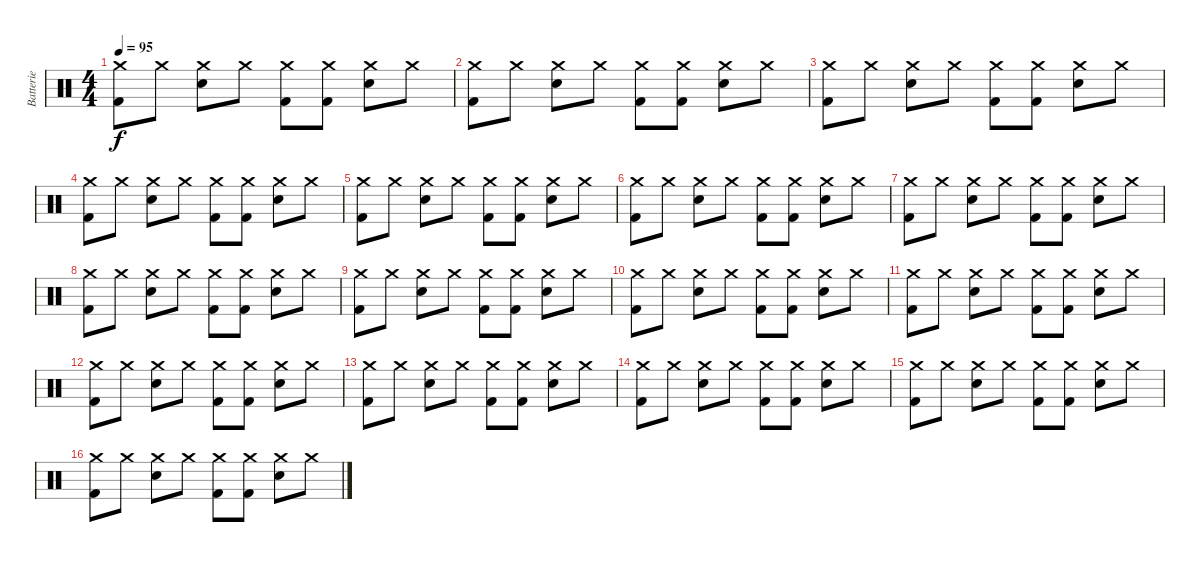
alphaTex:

\track ("Batterie" "Batterie") {instrument percussion}
\staff {score}
\articulation defaults
\ts (4 4)
\tempo 95
\clef neutral
\ks c
("Crash medium (hit)" "Kick (hit) 2").8{dy f} "Crash medium (hit)".8 ("Crash medium (hit)" "Electric Snare (hit)").8 "Crash medium (hit)".8 ("Crash medium (hit)" "Kick (hit) 2").8 ("Crash medium (hit)" "Kick (hit) 2").8 ("Crash medium (hit)" "Electric Snare (hit)").8 "Crash medium (hit)".8 |
("Crash medium (hit)" "Kick (hit) 2").8 "Crash medium (hit)".8 ("Crash medium (hit)" "Electric Snare (hit)").8 "Crash medium (hit)".8 ("Crash medium (hit)" "Kick (hit) 2").8 ("Crash medium (hit)" "Kick (hit) 2").8 ("Crash medium (hit)" "Electric Snare (hit)").8 "Crash medium (hit)".8 |
("Crash medium (hit)" "Kick (hit) 2").8 "Crash medium (hit)".8 ("Crash medium (hit)" "Electric Snare (hit)").8 "Crash medium (hit)".8 ("Crash medium (hit)" "Kick (hit) 2").8 ("Crash medium (hit)" "Kick (hit) 2").8 ("Crash medium (hit)" "Electric Snare (hit)").8 "Crash medium (hit)".8 |
("Crash medium (hit)" "Kick (hit) 2").8 "Crash medium (hit)".8 ("Crash medium (hit)" "Electric Snare (hit)").8 "Crash medium (hit)".8 ("Crash medium (hit)" "Kick (hit) 2").8 ("Crash medium (hit)" "Kick (hit) 2").8 ("Crash medium (hit)" "Electric Snare (hit)").8 "Crash medium (hit)".8 |
("Crash medium (hit)" "Kick (hit) 2").8 "Crash medium (hit)".8 ("Crash medium (hit)" "Electric Snare (hit)").8 "Crash medium (hit)".8 ("Crash medium (hit)" "Kick (hit) 2").8 ("Crash medium (hit)" "Kick (hit) 2").8 ("Crash medium (hit)" "Electric Snare (hit)").8 "Crash medium (hit)".8 |
("Crash medium (hit)" "Kick (hit) 2").8 "Crash medium (hit)".8 ("Crash medium (hit)" "Electric Snare (hit)").8 "Crash medium (hit)".8 ("Crash medium (hit)" "Kick (hit) 2").8 ("Crash medium (hit)" "Kick (hit) 2").8 ("Crash medium (hit)" "Electric Snare (hit)").8 "Crash medium (hit)".8 |
("Crash medium (hit)" "Kick (hit) 2").8 "Crash medium (hit)".8 ("Crash medium (hit)" "Electric Snare (hit)").8 "Crash medium (hit)".8 ("Crash medium (hit)" "Kick (hit) 2").8 ("Crash medium (hit)" "Kick (hit) 2").8 ("Crash medium (hit)" "Electric Snare (hit)").8 "Crash medium (hit)".8 |
("Crash medium (hit)" "Kick (hit) 2").8 "Crash medium (hit)".8 ("Crash medium (hit)" "Electric Snare (hit)").8 "Crash medium (hit)".8 ("Crash medium (hit)" "Kick (hit) 2").8 ("Crash medium (hit)" "Kick (hit) 2").8 ("Crash medium (hit)" "Electric Snare (hit)").8 "Crash medium (hit)".8 |
("Crash medium (hit)" "Kick (hit) 2").8 "Crash medium (hit)".8 ("Crash medium (hit)" "Electric Snare (hit)").8 "Crash medium (hit)".8 ("Crash medium (hit)" "Kick (hit) 2").8 ("Crash medium (hit)" "Kick (hit) 2").8 ("Crash medium (hit)" "Electric Snare (hit)").8 "Crash medium (hit)".8 |
("Crash medium (hit)" "Kick (hit) 2").8 "Crash medium (hit)".8 ("Crash medium (hit)" "Electric Snare (hit)").8 "Crash medium (hit)".8 ("Crash medium (hit)" "Kick (hit) 2").8 ("Crash medium (hit)" "Kick (hit) 2").8 ("Crash medium (hit)" "Electric Snare (hit)").8 "Crash medium (hit)".8 |
("Crash medium (hit)" "Kick (hit) 2").8 "Crash medium (hit)".8 ("Crash medium (hit)" "Electric Snare (hit)").8 "Crash medium (hit)".8 ("Crash medium (hit)" "Kick (hit) 2").8 ("Crash medium (hit)" "Kick (hit) 2").8 ("Crash medium (hit)" "Electric Snare (hit)").8 "Crash medium (hit)".8 |
("Crash medium (hit)" "Kick (hit) 2").8 "Crash medium (hit)".8 ("Crash medium (hit)" "Electric Snare (hit)").8 "Crash medium (hit)".8 ("Crash medium (hit)" "Kick (hit) 2").8 ("Crash medium (hit)" "Kick (hit) 2").8 ("Crash medium (hit)" "Electric Snare (hit)").8 "Crash medium (hit)".8 |
("Crash medium (hit)" "Kick (hit) 2").8 "Crash medium (hit)".8 ("Crash medium (hit)" "Electric Snare (hit)").8 "Crash medium (hit)".8 ("Crash medium (hit)" "Kick (hit) 2").8 ("Crash medium (hit)" "Kick (hit) 2").8 ("Crash medium (hit)" "Electric Snare (hit)").8 "Crash medium (hit)".8 |
("Crash medium (hit)" "Kick (hit) 2").8 "Crash medium (hit)".8 ("Crash medium (hit)" "Electric Snare (hit)").8 "Crash medium (hit)".8 ("Crash medium (hit)" "Kick (hit) 2").8 ("Crash medium (hit)" "Kick (hit) 2").8 ("Crash medium (hit)" "Electric Snare (hit)").8 "Crash medium (hit)".8 |
("Crash medium (hit)" "Kick (hit) 2").8 "Crash medium (hit)".8 ("Crash medium (hit)" "Electric Snare (hit)").8 "Crash medium (hit)".8 ("Crash medium (hit)" "Kick (hit) 2").8 ("Crash medium (hit)" "Kick (hit) 2").8 ("Crash medium (hit)" "Electric Snare (hit)").8 "Crash medium (hit)".8 |
("Crash medium (hit)" "Kick (hit) 2").8 "Crash medium (hit)".8 ("Crash medium (hit)" "Electric Snare (hit)").8 "Crash medium (hit)".8 ("Crash medium (hit)" "Kick (hit) 2").8 ("Crash medium (hit)" "Kick (hit) 2").8 ("Crash medium (hit)" "Electric Snare (hit)").8 "Crash medium (hit)".8
